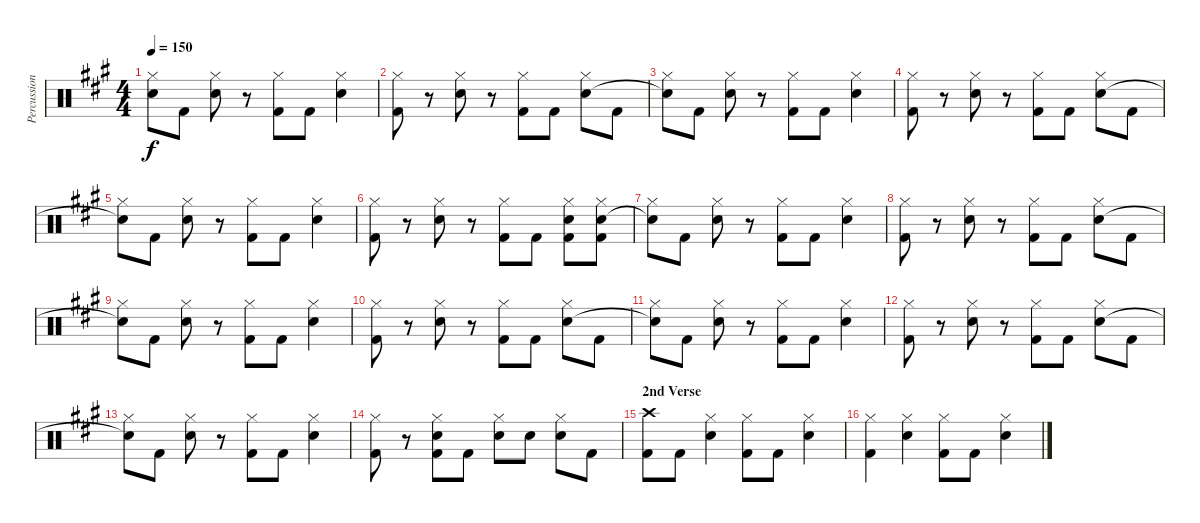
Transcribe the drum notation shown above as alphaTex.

\track ("Percussion" "Percussion") {instrument percussion}
\staff {score}
\articulation defaults
\ts (4 4)
\tempo 150
\clef neutral
\ks f#minor
("Hi-Hat (closed)" "Snare (hit)"{t}).8{dy f} "Kick (hit) 2".8 ("Hi-Hat (closed)" "Snare (hit) 2").8 r.8 ("Hi-Hat (closed)" "Kick (hit) 2").8 "Kick (hit) 2".8 ("Hi-Hat (closed)" "Snare (hit) 2").4 |
("Hi-Hat (closed)" "Kick (hit) 2").8 r.8 ("Hi-Hat (closed)" "Snare (hit) 2").8 r.8 ("Hi-Hat (closed)" "Kick (hit) 2").8 "Kick (hit) 2".8 ("Hi-Hat (closed)" "Snare (hit) 2").8 "Kick (hit) 2".8 |
("Hi-Hat (closed)" "Snare (hit)"{t}).8 "Kick (hit) 2".8 ("Hi-Hat (closed)" "Snare (hit) 2").8 r.8 ("Hi-Hat (closed)" "Kick (hit) 2").8 "Kick (hit) 2".8 ("Hi-Hat (closed)" "Snare (hit) 2").4 |
("Hi-Hat (closed)" "Kick (hit) 2").8 r.8 ("Hi-Hat (closed)" "Snare (hit) 2").8 r.8 ("Hi-Hat (closed)" "Kick (hit) 2").8 "Kick (hit) 2".8 ("Hi-Hat (closed)" "Snare (hit) 2").8 "Kick (hit) 2".8 |
("Hi-Hat (closed)" "Snare (hit)"{t}).8 "Kick (hit) 2".8 ("Hi-Hat (closed)" "Snare (hit) 2").8 r.8 ("Hi-Hat (closed)" "Kick (hit) 2").8 "Kick (hit) 2".8 ("Hi-Hat (closed)" "Snare (hit) 2").4 |
("Hi-Hat (closed)" "Kick (hit) 2").8 r.8 ("Hi-Hat (closed)" "Snare (hit) 2").8 r.8 ("Hi-Hat (closed)" "Kick (hit) 2").8 "Kick (hit) 2".8 ("Hi-Hat (closed)" "Snare (hit) 2" "Kick (hit) 2").8 ("Hi-Hat (closed)" "Snare (hit) 2" "Kick (hit) 2").8 |
("Hi-Hat (closed)" "Snare (hit)"{t}).8 "Kick (hit) 2".8 ("Hi-Hat (closed)" "Snare (hit) 2").8 r.8 ("Hi-Hat (closed)" "Kick (hit) 2").8 "Kick (hit) 2".8 ("Hi-Hat (closed)" "Snare (hit) 2").4 |
("Hi-Hat (closed)" "Kick (hit) 2").8 r.8 ("Hi-Hat (closed)" "Snare (hit) 2").8 r.8 ("Hi-Hat (closed)" "Kick (hit) 2").8 "Kick (hit) 2".8 ("Hi-Hat (closed)" "Snare (hit) 2").8 "Kick (hit) 2".8 |
("Hi-Hat (closed)" "Snare (hit)"{t}).8 "Kick (hit) 2".8 ("Hi-Hat (closed)" "Snare (hit) 2").8 r.8 ("Hi-Hat (closed)" "Kick (hit) 2").8 "Kick (hit) 2".8 ("Hi-Hat (closed)" "Snare (hit) 2").4 |
("Hi-Hat (closed)" "Kick (hit) 2").8 r.8 ("Hi-Hat (closed)" "Snare (hit) 2").8 r.8 ("Hi-Hat (closed)" "Kick (hit) 2").8 "Kick (hit) 2".8 ("Hi-Hat (closed)" "Snare (hit) 2").8 "Kick (hit) 2".8 |
("Hi-Hat (closed)" "Snare (hit)"{t}).8 "Kick (hit) 2".8 ("Hi-Hat (closed)" "Snare (hit) 2").8 r.8 ("Hi-Hat (closed)" "Kick (hit) 2").8 "Kick (hit) 2".8 ("Hi-Hat (closed)" "Snare (hit) 2").4 |
("Hi-Hat (closed)" "Kick (hit) 2").8 r.8 ("Hi-Hat (closed)" "Snare (hit) 2").8 r.8 ("Hi-Hat (closed)" "Kick (hit) 2").8 "Kick (hit) 2".8 ("Hi-Hat (closed)" "Snare (hit) 2").8 "Kick (hit) 2".8 |
("Hi-Hat (closed)" "Snare (hit)"{t}).8 "Kick (hit) 2".8 ("Hi-Hat (closed)" "Snare (hit) 2").8 r.8 ("Hi-Hat (closed)" "Kick (hit) 2").8 "Kick (hit) 2".8 ("Hi-Hat (closed)" "Snare (hit) 2").4 |
("Hi-Hat (closed)" "Kick (hit) 2").8 r.8 ("Hi-Hat (closed)" "Snare (hit) 2" "Kick (hit) 2").8 "Kick (hit) 2".8 ("Hi-Hat (closed)" "Snare (hit) 2").8 "Snare (hit) 2".8 ("Hi-Hat (closed)" "Snare (hit) 2").8 "Kick (hit) 2".8 |
\section ("" "2nd Verse")
("Crash high (hit)" "Kick (hit) 2").8 "Kick (hit) 2".8 ("Hi-Hat (closed)" "Snare (hit) 2").4 ("Hi-Hat (closed)" "Kick (hit) 2").8 "Kick (hit) 2".8 ("Hi-Hat (closed)" "Snare (hit) 2").4 |
("Hi-Hat (closed)" "Kick (hit) 2").4 ("Hi-Hat (closed)" "Snare (hit) 2").4 ("Hi-Hat (closed)" "Kick (hit) 2").8 "Kick (hit) 2".8 ("Hi-Hat (closed)" "Snare (hit) 2").4
